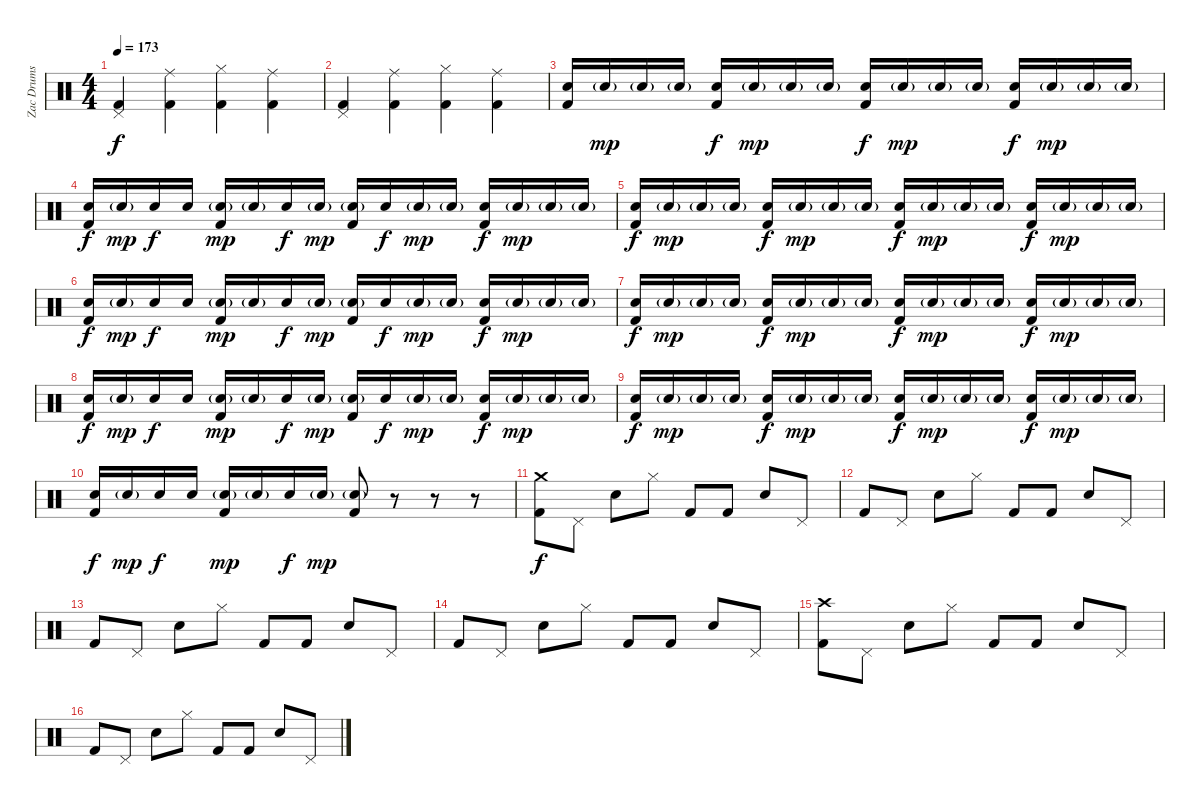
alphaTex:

\track ("Zac Drums" "Zac Drums") {instrument percussion}
\staff {score}
\articulation defaults
\ts (4 4)
\tempo 173
\clef neutral
\ks c
("Pedal Hi-Hat (hit)" "Kick (hit) 2").4{dy f} ("Ride (middle)" "Kick (hit) 2").4 ("Hi-Hat (closed)" "Kick (hit) 2").4 ("Ride (middle)" "Kick (hit) 2").4 |
("Pedal Hi-Hat (hit)" "Kick (hit) 2").4 ("Ride (middle)" "Kick (hit) 2").4 ("Hi-Hat (closed)" "Kick (hit) 2").4 ("Ride (middle)" "Kick (hit) 2").4 |
("Electric Snare (hit)" "Kick (hit) 2").16 "Electric Snare (hit)"{g}.16{dy mp} "Electric Snare (hit)"{g}.16 "Electric Snare (hit)"{g}.16 ("Electric Snare (hit)" "Kick (hit) 2").16{dy f} "Electric Snare (hit)"{g}.16{dy mp} "Electric Snare (hit)"{g}.16 "Electric Snare (hit)"{g}.16 ("Electric Snare (hit)" "Kick (hit) 2").16{dy f} "Electric Snare (hit)"{g}.16{dy mp} "Electric Snare (hit)"{g}.16 "Electric Snare (hit)"{g}.16 ("Electric Snare (hit)" "Kick (hit) 2").16{dy f} "Electric Snare (hit)"{g}.16{dy mp} "Electric Snare (hit)"{g}.16 "Electric Snare (hit)"{g}.16 |
("Electric Snare (hit)" "Kick (hit) 2").16{dy f} "Electric Snare (hit)"{g}.16{dy mp} "Electric Snare (hit)".16{dy f} "Electric Snare (hit)".16 ("Electric Snare (hit)"{g} "Kick (hit) 2").16{dy mp} "Electric Snare (hit)"{g}.16 "Electric Snare (hit)".16{dy f} "Electric Snare (hit)"{g}.16{dy mp} ("Electric Snare (hit)"{g} "Kick (hit) 2").16 "Electric Snare (hit)".16{dy f} "Electric Snare (hit)"{g}.16{dy mp} "Electric Snare (hit)"{g}.16 ("Electric Snare (hit)" "Kick (hit) 2").16{dy f} "Electric Snare (hit)"{g}.16{dy mp} "Electric Snare (hit)"{g}.16 "Electric Snare (hit)"{g}.16 |
("Electric Snare (hit)" "Kick (hit) 2").16{dy f} "Electric Snare (hit)"{g}.16{dy mp} "Electric Snare (hit)"{g}.16 "Electric Snare (hit)"{g}.16 ("Electric Snare (hit)" "Kick (hit) 2").16{dy f} "Electric Snare (hit)"{g}.16{dy mp} "Electric Snare (hit)"{g}.16 "Electric Snare (hit)"{g}.16 ("Electric Snare (hit)" "Kick (hit) 2").16{dy f} "Electric Snare (hit)"{g}.16{dy mp} "Electric Snare (hit)"{g}.16 "Electric Snare (hit)"{g}.16 ("Electric Snare (hit)" "Kick (hit) 2").16{dy f} "Electric Snare (hit)"{g}.16{dy mp} "Electric Snare (hit)"{g}.16 "Electric Snare (hit)"{g}.16 |
("Electric Snare (hit)" "Kick (hit) 2").16{dy f} "Electric Snare (hit)"{g}.16{dy mp} "Electric Snare (hit)".16{dy f} "Electric Snare (hit)".16 ("Electric Snare (hit)"{g} "Kick (hit) 2").16{dy mp} "Electric Snare (hit)"{g}.16 "Electric Snare (hit)".16{dy f} "Electric Snare (hit)"{g}.16{dy mp} ("Electric Snare (hit)"{g} "Kick (hit) 2").16 "Electric Snare (hit)".16{dy f} "Electric Snare (hit)"{g}.16{dy mp} "Electric Snare (hit)"{g}.16 ("Electric Snare (hit)" "Kick (hit) 2").16{dy f} "Electric Snare (hit)"{g}.16{dy mp} "Electric Snare (hit)"{g}.16 "Electric Snare (hit)"{g}.16 |
("Electric Snare (hit)" "Kick (hit) 2").16{dy f} "Electric Snare (hit)"{g}.16{dy mp} "Electric Snare (hit)"{g}.16 "Electric Snare (hit)"{g}.16 ("Electric Snare (hit)" "Kick (hit) 2").16{dy f} "Electric Snare (hit)"{g}.16{dy mp} "Electric Snare (hit)"{g}.16 "Electric Snare (hit)"{g}.16 ("Electric Snare (hit)" "Kick (hit) 2").16{dy f} "Electric Snare (hit)"{g}.16{dy mp} "Electric Snare (hit)"{g}.16 "Electric Snare (hit)"{g}.16 ("Electric Snare (hit)" "Kick (hit) 2").16{dy f} "Electric Snare (hit)"{g}.16{dy mp} "Electric Snare (hit)"{g}.16 "Electric Snare (hit)"{g}.16 |
("Electric Snare (hit)" "Kick (hit) 2").16{dy f} "Electric Snare (hit)"{g}.16{dy mp} "Electric Snare (hit)".16{dy f} "Electric Snare (hit)".16 ("Electric Snare (hit)"{g} "Kick (hit) 2").16{dy mp} "Electric Snare (hit)"{g}.16 "Electric Snare (hit)".16{dy f} "Electric Snare (hit)"{g}.16{dy mp} ("Electric Snare (hit)"{g} "Kick (hit) 2").16 "Electric Snare (hit)".16{dy f} "Electric Snare (hit)"{g}.16{dy mp} "Electric Snare (hit)"{g}.16 ("Electric Snare (hit)" "Kick (hit) 2").16{dy f} "Electric Snare (hit)"{g}.16{dy mp} "Electric Snare (hit)"{g}.16 "Electric Snare (hit)"{g}.16 |
("Electric Snare (hit)" "Kick (hit) 2").16{dy f} "Electric Snare (hit)"{g}.16{dy mp} "Electric Snare (hit)"{g}.16 "Electric Snare (hit)"{g}.16 ("Electric Snare (hit)" "Kick (hit) 2").16{dy f} "Electric Snare (hit)"{g}.16{dy mp} "Electric Snare (hit)"{g}.16 "Electric Snare (hit)"{g}.16 ("Electric Snare (hit)" "Kick (hit) 2").16{dy f} "Electric Snare (hit)"{g}.16{dy mp} "Electric Snare (hit)"{g}.16 "Electric Snare (hit)"{g}.16 ("Electric Snare (hit)" "Kick (hit) 2").16{dy f} "Electric Snare (hit)"{g}.16{dy mp} "Electric Snare (hit)"{g}.16 "Electric Snare (hit)"{g}.16 |
("Electric Snare (hit)" "Kick (hit) 2").16{dy f} "Electric Snare (hit)"{g}.16{dy mp} "Electric Snare (hit)".16{dy f} "Electric Snare (hit)".16 ("Electric Snare (hit)"{g} "Kick (hit) 2").16{dy mp} "Electric Snare (hit)"{g}.16 "Electric Snare (hit)".16{dy f} "Electric Snare (hit)"{g}.16{dy mp} ("Electric Snare (hit)"{g} "Kick (hit) 2").8 r.8 r.8 r.8 |
("Crash medium (hit)" "Kick (hit) 2").8{dy f} "Pedal Hi-Hat (hit)".8 "Electric Snare (hit)".8 "Hi-Hat (closed)".8 "Kick (hit) 2".8 "Kick (hit) 2".8 "Electric Snare (hit)".8 "Pedal Hi-Hat (hit)".8 |
"Kick (hit) 2".8 "Pedal Hi-Hat (hit)".8 "Electric Snare (hit)".8 "Hi-Hat (closed)".8 "Kick (hit) 2".8 "Kick (hit) 2".8 "Electric Snare (hit)".8 "Pedal Hi-Hat (hit)".8 |
"Kick (hit) 2".8 "Pedal Hi-Hat (hit)".8 "Electric Snare (hit)".8 "Hi-Hat (closed)".8 "Kick (hit) 2".8 "Kick (hit) 2".8 "Electric Snare (hit)".8 "Pedal Hi-Hat (hit)".8 |
"Kick (hit) 2".8 "Pedal Hi-Hat (hit)".8 "Electric Snare (hit)".8 "Hi-Hat (closed)".8 "Kick (hit) 2".8 "Kick (hit) 2".8 "Electric Snare (hit)".8 "Pedal Hi-Hat (hit)".8 |
("Crash high (hit)" "Kick (hit) 2").8 "Pedal Hi-Hat (hit)".8 "Electric Snare (hit)".8 "Hi-Hat (closed)".8 "Kick (hit) 2".8 "Kick (hit) 2".8 "Electric Snare (hit)".8 "Pedal Hi-Hat (hit)".8 |
"Kick (hit) 2".8 "Pedal Hi-Hat (hit)".8 "Electric Snare (hit)".8 "Hi-Hat (closed)".8 "Kick (hit) 2".8 "Kick (hit) 2".8 "Electric Snare (hit)".8 "Pedal Hi-Hat (hit)".8
